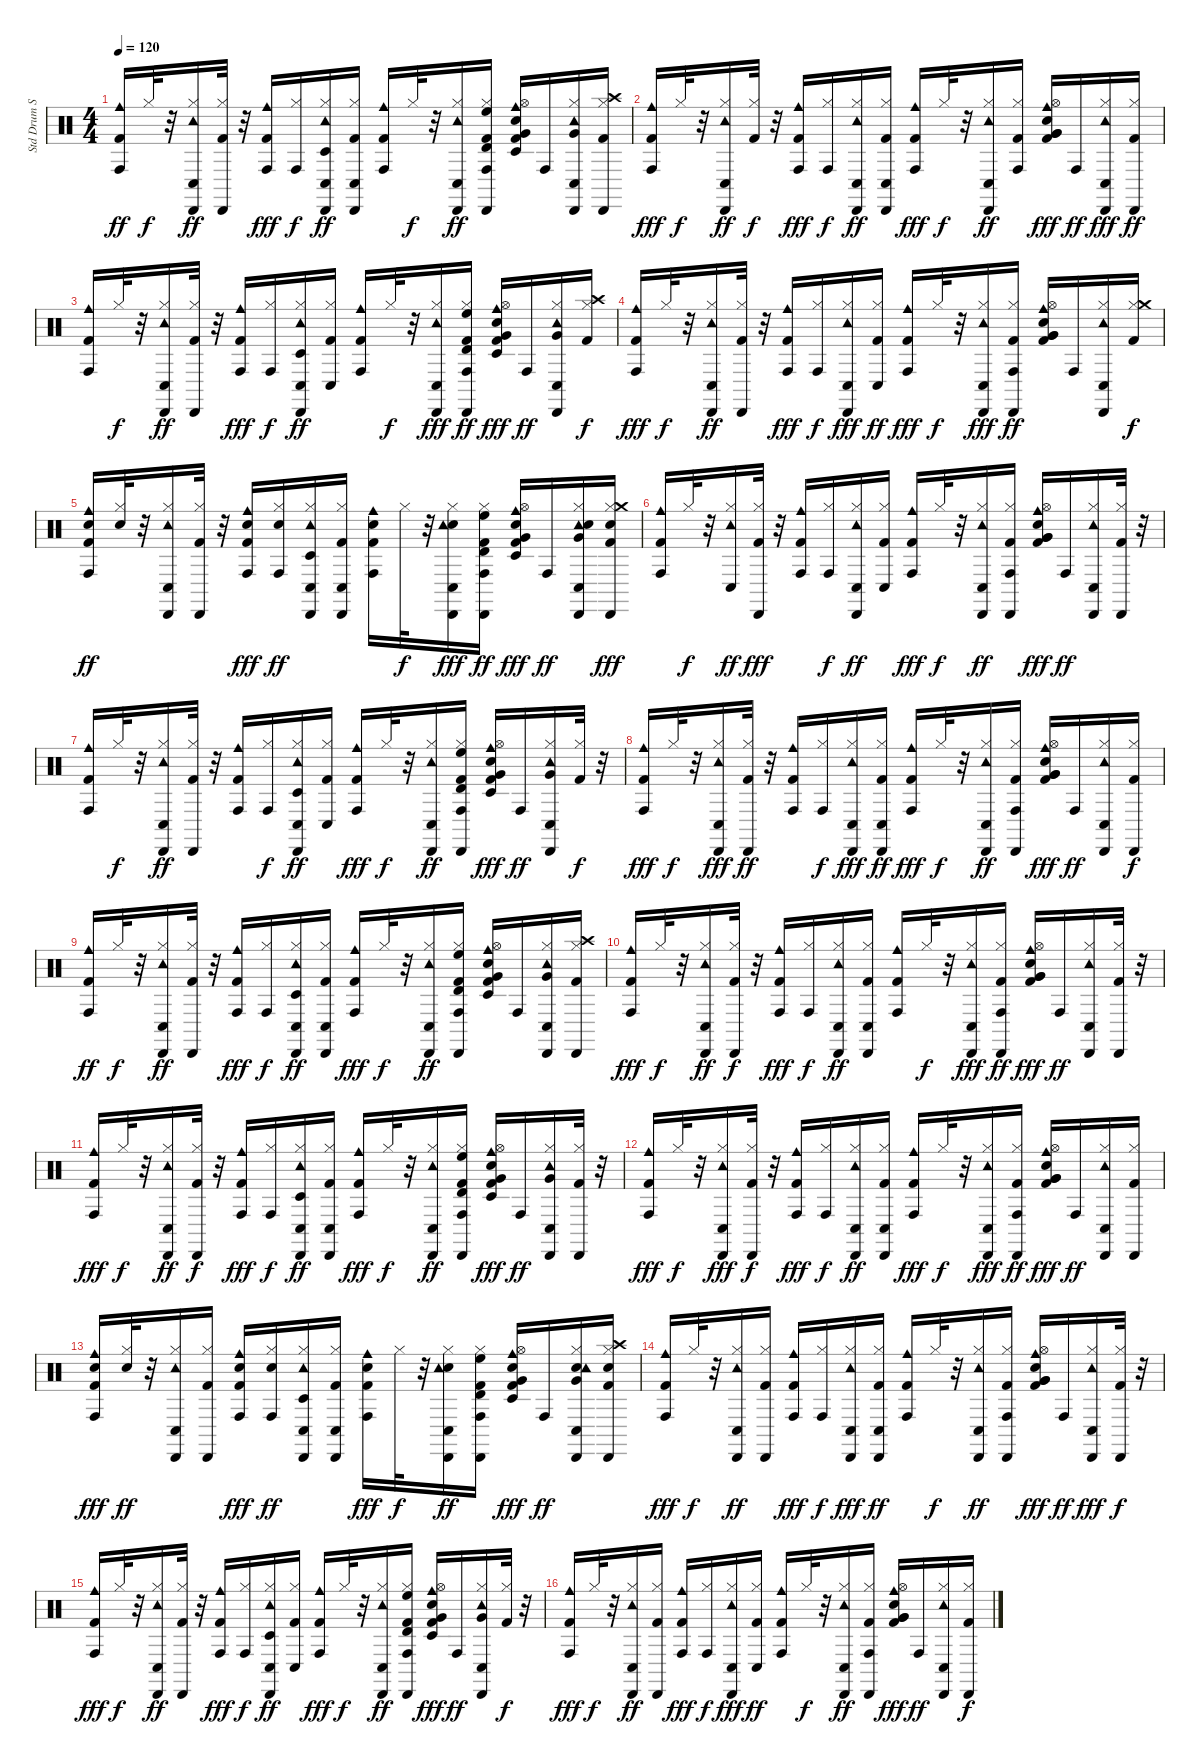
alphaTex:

\track ("Std Drum Set" "Std Drum S") {instrument percussion}
\staff {score}
\articulation defaults
\ts (4 4)
\tempo 120
\clef neutral
\ks c
("Kick (hit) 2" "Cowbell medium (hit)" "Conga high (hit)").16{dy ff} "Hi-Hat (closed)".32{dy f} r.32 ("Hi-Hat (closed)" "Conga low (hit)" "Tambourine (hit)" "Cabasa (hit)").16{dy ff} ("Hi-Hat (closed)" "Kick (hit) 2" "Cabasa (hit)").32 r.32 ("Conga high (hit)" "Kick (hit) 2" "Cowbell medium (hit)").16{dy fff} ("Conga high (hit)" "Hi-Hat (closed)").16{dy f} ("Tambourine (hit)" "Hi-Hat (closed)" "Cabasa (hit)" "Conga low (hit)" "Timbale low (hit)").16{dy ff} ("Conga low (hit)" "Cabasa (hit)" "Kick (hit) 2" "Hi-Hat (closed)").16 ("Cowbell medium (hit)" "Kick (hit) 2" "Conga high (hit)").16 "Hi-Hat (closed)".32{dy f} r.32 ("Conga low (hit)" "Cabasa (hit)" "Hi-Hat (closed)" "Tambourine (hit)").16{dy ff} ("High Floor Tom (hit)" "Hi-Hat (closed)" "Conga high (hit)" "Cabasa (hit)" "Kick (hit) 2" "Timbale high (hit)").16 ("Very Low Tom (hit)" "Hi-Hat (open)" "Cowbell medium (hit)" "Kick (hit) 2" "Timbale low (hit)" "Electric Snare (hit)").16 "Conga high (hit)".16 ("Tambourine (hit)" "Cabasa (hit)" "Hi-Hat (closed)" "Very Low Tom (hit)" "Conga low (hit)").16 ("Kick (hit) 2" "Crash high (hit)" "Hi-Hat (closed)" "Cabasa (hit)").16 |
("Conga high (hit)" "Cowbell medium (hit)" "Kick (hit) 2").16{dy fff} "Hi-Hat (closed)".32{dy f} r.32 ("Cabasa (hit)" "Hi-Hat (closed)" "Conga low (hit)" "Tambourine (hit)").16{dy ff} ("Hi-Hat (closed)" "Kick (hit) 2").32{dy f} r.32 ("Cowbell medium (hit)" "Conga high (hit)" "Kick (hit) 2").16{dy fff} ("Conga high (hit)" "Hi-Hat (closed)").16{dy f} ("Conga low (hit)" "Cabasa (hit)" "Tambourine (hit)" "Hi-Hat (closed)").16{dy ff} ("Kick (hit) 2" "Hi-Hat (closed)" "Conga low (hit)" "Cabasa (hit)").16 ("Conga high (hit)" "Cowbell medium (hit)" "Kick (hit) 2").16{dy fff} "Hi-Hat (closed)".32{dy f} r.32 ("Cabasa (hit)" "Tambourine (hit)" "Conga low (hit)" "Hi-Hat (closed)").16{dy ff} ("Conga high (hit)" "Hi-Hat (closed)" "Kick (hit) 2").16 ("Hi-Hat (open)" "Kick (hit) 2" "Very Low Tom (hit)" "Electric Snare (hit)" "Very Low Tom (hit)" "Cowbell medium (hit)").16{dy fff} "Conga high (hit)".16{dy ff} ("Conga low (hit)" "Tambourine (hit)" "Hi-Hat (closed)" "Cabasa (hit)").16{dy fff} ("Hi-Hat (closed)" "Kick (hit) 2" "Cabasa (hit)").16{dy ff} |
("Cowbell medium (hit)" "Kick (hit) 2" "Conga high (hit)").16 "Hi-Hat (closed)".32{dy f} r.32 ("Tambourine (hit)" "Hi-Hat (closed)" "Cabasa (hit)" "Conga low (hit)").16{dy ff} ("Cabasa (hit)" "Hi-Hat (closed)" "Kick (hit) 2").32 r.32 ("Cowbell medium (hit)" "Conga high (hit)" "Kick (hit) 2").16{dy fff} ("Hi-Hat (closed)" "Conga high (hit)").16{dy f} ("Hi-Hat (closed)" "Tambourine (hit)" "Cabasa (hit)" "Conga low (hit)" "Timbale low (hit)").16{dy ff} ("Hi-Hat (closed)" "Conga low (hit)" "Kick (hit) 2").16 ("Kick (hit) 2" "Cowbell medium (hit)" "Conga high (hit)").16 "Hi-Hat (closed)".32{dy f} r.32 ("Hi-Hat (closed)" "Conga low (hit)" "Cabasa (hit)" "Tambourine (hit)").16{dy fff} ("Timbale high (hit)" "Kick (hit) 2" "Conga high (hit)" "High Floor Tom (hit)" "Hi-Hat (closed)" "Cabasa (hit)").16{dy ff} ("Timbale low (hit)" "Very Low Tom (hit)" "Cowbell medium (hit)" "Electric Snare (hit)" "Hi-Hat (open)" "Kick (hit) 2").16{dy fff} "Conga high (hit)".16{dy ff} ("Conga low (hit)" "Cabasa (hit)" "Hi-Hat (closed)" "Very Low Tom (hit)" "Tambourine (hit)").16 ("Crash high (hit)" "Hi-Hat (closed)" "Kick (hit) 2").16{dy f} |
("Kick (hit) 2" "Conga high (hit)" "Cowbell medium (hit)").16{dy fff} "Hi-Hat (closed)".32{dy f} r.32 ("Tambourine (hit)" "Conga low (hit)" "Cabasa (hit)" "Hi-Hat (closed)").16{dy ff} ("Hi-Hat (closed)" "Kick (hit) 2" "Cabasa (hit)").32 r.32 ("Conga high (hit)" "Kick (hit) 2" "Cowbell medium (hit)").16{dy fff} ("Hi-Hat (closed)" "Conga high (hit)").16{dy f} ("Conga low (hit)" "Hi-Hat (closed)" "Cabasa (hit)" "Tambourine (hit)").16{dy fff} ("Kick (hit) 2" "Hi-Hat (closed)" "Conga low (hit)").16{dy ff} ("Cowbell medium (hit)" "Conga high (hit)" "Kick (hit) 2").16{dy fff} "Hi-Hat (closed)".32{dy f} r.32 ("Conga low (hit)" "Tambourine (hit)" "Hi-Hat (closed)" "Cabasa (hit)").16{dy fff} ("Conga high (hit)" "Hi-Hat (closed)" "Cabasa (hit)" "Kick (hit) 2").16{dy ff} ("Kick (hit) 2" "Cowbell medium (hit)" "Electric Snare (hit)" "Very Low Tom (hit)" "Very Low Tom (hit)" "Hi-Hat (open)").16 "Conga high (hit)".16 ("Hi-Hat (closed)" "Cabasa (hit)" "Conga low (hit)" "Tambourine (hit)").16 ("Hi-Hat (closed)" "Kick (hit) 2" "Crash medium (hit)").16{dy f} |
("Cowbell medium (hit)" "Kick (hit) 2" "Conga high (hit)" "Electric Snare (hit)").16{dy ff} ("Electric Snare (hit)" "Hi-Hat (closed)").32 r.32 ("Cabasa (hit)" "Conga low (hit)" "Tambourine (hit)" "Hi-Hat (closed)").16 ("Kick (hit) 2" "Hi-Hat (closed)" "Cabasa (hit)").32 r.32 ("Cowbell medium (hit)" "Electric Snare (hit)" "Conga high (hit)" "Kick (hit) 2").16{dy fff} ("Conga high (hit)" "Hi-Hat (closed)" "Electric Snare (hit)").16{dy ff} ("Cabasa (hit)" "Timbale low (hit)" "Tambourine (hit)" "Conga low (hit)" "Hi-Hat (closed)").16 ("Conga low (hit)" "Kick (hit) 2" "Cabasa (hit)" "Hi-Hat (closed)").16 ("Cowbell medium (hit)" "Kick (hit) 2" "Electric Snare (hit)" "Conga high (hit)").16 "Hi-Hat (closed)".32{dy f} r.32 ("Hi-Hat (closed)" "Electric Snare (hit)" "Conga low (hit)" "Tambourine (hit)" "Cabasa (hit)").16{dy fff} ("Hi-Hat (closed)" "Kick (hit) 2" "Cabasa (hit)" "Timbale high (hit)" "High Floor Tom (hit)" "Conga high (hit)").16{dy ff} ("Hi-Hat (open)" "Timbale low (hit)" "Very Low Tom (hit)" "Kick (hit) 2" "Electric Snare (hit)" "Cowbell medium (hit)").16{dy fff} "Conga high (hit)".16{dy ff} ("Very Low Tom (hit)" "Cabasa (hit)" "Tambourine (hit)" "Electric Snare (hit)" "Conga low (hit)" "Hi-Hat (closed)").16 ("Electric Snare (hit)" "Hi-Hat (closed)" "Kick (hit) 2" "Cabasa (hit)" "Crash medium (hit)").16{dy fff} |
("Kick (hit) 2" "Conga high (hit)" "Cowbell medium (hit)").16 "Hi-Hat (closed)".32{dy f} r.32 ("Conga low (hit)" "Tambourine (hit)" "Hi-Hat (closed)").16{dy ff} ("Kick (hit) 2" "Cabasa (hit)" "Hi-Hat (closed)").32{dy fff} r.32 ("Conga high (hit)" "Kick (hit) 2" "Cowbell medium (hit)").16 ("Conga high (hit)" "Hi-Hat (closed)").16{dy f} ("Cabasa (hit)" "Hi-Hat (closed)" "Conga low (hit)" "Tambourine (hit)").16{dy ff} ("Kick (hit) 2" "Conga low (hit)" "Hi-Hat (closed)").16 ("Cowbell medium (hit)" "Conga high (hit)" "Kick (hit) 2").16{dy fff} "Hi-Hat (closed)".32{dy f} r.32 ("Conga low (hit)" "Cabasa (hit)" "Hi-Hat (closed)" "Tambourine (hit)").16{dy ff} ("Cabasa (hit)" "Conga high (hit)" "Kick (hit) 2" "Hi-Hat (closed)").16 ("Kick (hit) 2" "Electric Snare (hit)" "Cowbell medium (hit)" "Hi-Hat (open)" "Very Low Tom (hit)" "Very Low Tom (hit)").16{dy fff} "Conga high (hit)".16{dy ff} ("Tambourine (hit)" "Hi-Hat (closed)" "Conga low (hit)" "Cabasa (hit)").16 ("Cabasa (hit)" "Kick (hit) 2" "Hi-Hat (closed)").32 r.32 |
("Kick (hit) 2" "Cowbell medium (hit)" "Conga high (hit)").16 "Hi-Hat (closed)".32{dy f} r.32 ("Conga low (hit)" "Cabasa (hit)" "Tambourine (hit)" "Hi-Hat (closed)").16{dy ff} ("Kick (hit) 2" "Hi-Hat (closed)" "Cabasa (hit)").32 r.32 ("Cowbell medium (hit)" "Kick (hit) 2" "Conga high (hit)").16 ("Conga high (hit)" "Hi-Hat (closed)").16{dy f} ("Cabasa (hit)" "Hi-Hat (closed)" "Tambourine (hit)" "Timbale low (hit)" "Conga low (hit)").16{dy ff} ("Conga low (hit)" "Kick (hit) 2" "Hi-Hat (closed)").16 ("Cowbell medium (hit)" "Conga high (hit)" "Kick (hit) 2").16{dy fff} "Hi-Hat (closed)".32{dy f} r.32 ("Hi-Hat (closed)" "Cabasa (hit)" "Tambourine (hit)" "Conga low (hit)").16{dy ff} ("High Floor Tom (hit)" "Cabasa (hit)" "Timbale high (hit)" "Kick (hit) 2" "Conga high (hit)" "Hi-Hat (closed)").16 ("Cowbell medium (hit)" "Very Low Tom (hit)" "Timbale low (hit)" "Kick (hit) 2" "Hi-Hat (open)" "Electric Snare (hit)").16{dy fff} "Conga high (hit)".16{dy ff} ("Hi-Hat (closed)" "Tambourine (hit)" "Very Low Tom (hit)" "Cabasa (hit)" "Conga low (hit)").16 ("Hi-Hat (closed)" "Kick (hit) 2").32{dy f} r.32 |
("Conga high (hit)" "Cowbell medium (hit)" "Kick (hit) 2").16{dy fff} "Hi-Hat (closed)".32{dy f} r.32 ("Conga low (hit)" "Hi-Hat (closed)" "Tambourine (hit)" "Cabasa (hit)").16{dy fff} ("Cabasa (hit)" "Kick (hit) 2" "Hi-Hat (closed)").32{dy ff} r.32 ("Kick (hit) 2" "Cowbell medium (hit)" "Conga high (hit)").16 ("Hi-Hat (closed)" "Conga high (hit)").16{dy f} ("Hi-Hat (closed)" "Conga low (hit)" "Tambourine (hit)" "Cabasa (hit)").16{dy fff} ("Conga low (hit)" "Hi-Hat (closed)" "Kick (hit) 2" "Cabasa (hit)").16{dy ff} ("Conga high (hit)" "Kick (hit) 2" "Cowbell medium (hit)").16{dy fff} "Hi-Hat (closed)".32{dy f} r.32 ("Cabasa (hit)" "Tambourine (hit)" "Conga low (hit)" "Hi-Hat (closed)").16{dy ff} ("Cabasa (hit)" "Kick (hit) 2" "Conga high (hit)" "Hi-Hat (closed)").16 ("Very Low Tom (hit)" "Kick (hit) 2" "Hi-Hat (open)" "Very Low Tom (hit)" "Cowbell medium (hit)" "Electric Snare (hit)").16{dy fff} "Conga high (hit)".16{dy ff} ("Conga low (hit)" "Hi-Hat (closed)" "Tambourine (hit)" "Cabasa (hit)").16 ("Kick (hit) 2" "Cabasa (hit)" "Hi-Hat (closed)").16{dy f} |
("Kick (hit) 2" "Cowbell medium (hit)" "Conga high (hit)").16{dy ff} "Hi-Hat (closed)".32{dy f} r.32 ("Cabasa (hit)" "Tambourine (hit)" "Conga low (hit)" "Hi-Hat (closed)").16{dy ff} ("Cabasa (hit)" "Kick (hit) 2" "Hi-Hat (closed)").32 r.32 ("Cowbell medium (hit)" "Conga high (hit)" "Kick (hit) 2").16{dy fff} ("Conga high (hit)" "Hi-Hat (closed)").16{dy f} ("Tambourine (hit)" "Cabasa (hit)" "Conga low (hit)" "Hi-Hat (closed)" "Timbale low (hit)").16{dy ff} ("Kick (hit) 2" "Cabasa (hit)" "Conga low (hit)" "Hi-Hat (closed)").16 ("Conga high (hit)" "Cowbell medium (hit)" "Kick (hit) 2").16{dy fff} "Hi-Hat (closed)".32{dy f} r.32 ("Cabasa (hit)" "Conga low (hit)" "Tambourine (hit)" "Hi-Hat (closed)").16{dy ff} ("Timbale high (hit)" "Conga high (hit)" "High Floor Tom (hit)" "Hi-Hat (closed)" "Cabasa (hit)" "Kick (hit) 2").16 ("Very Low Tom (hit)" "Kick (hit) 2" "Cowbell medium (hit)" "Hi-Hat (open)" "Timbale low (hit)" "Electric Snare (hit)").16 "Conga high (hit)".16 ("Conga low (hit)" "Hi-Hat (closed)" "Tambourine (hit)" "Very Low Tom (hit)" "Cabasa (hit)").16 ("Cabasa (hit)" "Kick (hit) 2" "Hi-Hat (closed)" "Crash high (hit)").16 |
("Kick (hit) 2" "Conga high (hit)" "Cowbell medium (hit)").16{dy fff} "Hi-Hat (closed)".32{dy f} r.32 ("Cabasa (hit)" "Hi-Hat (closed)" "Tambourine (hit)" "Conga low (hit)").16{dy ff} ("Hi-Hat (closed)" "Cabasa (hit)" "Kick (hit) 2").32{dy f} r.32 ("Conga high (hit)" "Kick (hit) 2" "Cowbell medium (hit)").16{dy fff} ("Conga high (hit)" "Hi-Hat (closed)").16{dy f} ("Hi-Hat (closed)" "Tambourine (hit)" "Cabasa (hit)" "Conga low (hit)").16{dy ff} ("Cabasa (hit)" "Conga low (hit)" "Kick (hit) 2" "Hi-Hat (closed)").16 ("Kick (hit) 2" "Cowbell medium (hit)" "Conga high (hit)").16 "Hi-Hat (closed)".32{dy f} r.32 ("Tambourine (hit)" "Hi-Hat (closed)" "Conga low (hit)" "Cabasa (hit)").16{dy fff} ("Hi-Hat (closed)" "Conga high (hit)" "Cabasa (hit)" "Kick (hit) 2").16{dy ff} ("Hi-Hat (open)" "Very Low Tom (hit)" "Kick (hit) 2" "Very Low Tom (hit)" "Electric Snare (hit)" "Cowbell medium (hit)").16{dy fff} "Conga high (hit)".16{dy ff} ("Cabasa (hit)" "Conga low (hit)" "Tambourine (hit)" "Hi-Hat (closed)").16 ("Cabasa (hit)" "Hi-Hat (closed)" "Kick (hit) 2").32 r.32 |
("Kick (hit) 2" "Conga high (hit)" "Cowbell medium (hit)").16{dy fff} "Hi-Hat (closed)".32{dy f} r.32 ("Tambourine (hit)" "Hi-Hat (closed)" "Conga low (hit)" "Cabasa (hit)").16{dy ff} ("Kick (hit) 2" "Hi-Hat (closed)" "Cabasa (hit)").32{dy f} r.32 ("Conga high (hit)" "Kick (hit) 2" "Cowbell medium (hit)").16{dy fff} ("Hi-Hat (closed)" "Conga high (hit)").16{dy f} ("Cabasa (hit)" "Hi-Hat (closed)" "Tambourine (hit)" "Timbale low (hit)" "Conga low (hit)").16{dy ff} ("Conga low (hit)" "Kick (hit) 2" "Hi-Hat (closed)" "Cabasa (hit)").16 ("Cowbell medium (hit)" "Conga high (hit)" "Kick (hit) 2").16{dy fff} "Hi-Hat (closed)".32{dy f} r.32 ("Cabasa (hit)" "Conga low (hit)" "Tambourine (hit)" "Hi-Hat (closed)").16{dy ff} ("Conga high (hit)" "Timbale high (hit)" "High Floor Tom (hit)" "Kick (hit) 2" "Hi-Hat (closed)" "Cabasa (hit)").16 ("Very Low Tom (hit)" "Hi-Hat (open)" "Cowbell medium (hit)" "Kick (hit) 2" "Electric Snare (hit)" "Timbale low (hit)").16{dy fff} "Conga high (hit)".16{dy ff} ("Tambourine (hit)" "Hi-Hat (closed)" "Conga low (hit)" "Cabasa (hit)" "Very Low Tom (hit)").16 ("Cabasa (hit)" "Hi-Hat (closed)" "Kick (hit) 2").32 r.32 |
("Conga high (hit)" "Kick (hit) 2" "Cowbell medium (hit)").16{dy fff} "Hi-Hat (closed)".32{dy f} r.32 ("Conga low (hit)" "Tambourine (hit)" "Hi-Hat (closed)" "Cabasa (hit)").16{dy fff} ("Kick (hit) 2" "Hi-Hat (closed)" "Cabasa (hit)").32{dy f} r.32 ("Kick (hit) 2" "Conga high (hit)" "Cowbell medium (hit)").16{dy fff} ("Hi-Hat (closed)" "Conga high (hit)").16{dy f} ("Cabasa (hit)" "Hi-Hat (closed)" "Conga low (hit)" "Tambourine (hit)").16{dy ff} ("Kick (hit) 2" "Conga low (hit)" "Hi-Hat (closed)" "Cabasa (hit)").16 ("Conga high (hit)" "Cowbell medium (hit)" "Kick (hit) 2").16{dy fff} "Hi-Hat (closed)".32{dy f} r.32 ("Hi-Hat (closed)" "Conga low (hit)" "Cabasa (hit)" "Tambourine (hit)").16{dy fff} ("Hi-Hat (closed)" "Kick (hit) 2" "Conga high (hit)" "Cabasa (hit)").16{dy ff} ("Kick (hit) 2" "Very Low Tom (hit)" "Electric Snare (hit)" "Hi-Hat (open)" "Very Low Tom (hit)" "Cowbell medium (hit)").16{dy fff} "Conga high (hit)".16{dy ff} ("Hi-Hat (closed)" "Conga low (hit)" "Tambourine (hit)" "Cabasa (hit)").16 ("Hi-Hat (closed)" "Kick (hit) 2" "Cabasa (hit)").16 |
("Electric Snare (hit)" "Cowbell medium (hit)" "Conga high (hit)" "Kick (hit) 2").16{dy fff} ("Hi-Hat (closed)" "Electric Snare (hit)").32{dy ff} r.32 ("Conga low (hit)" "Cabasa (hit)" "Tambourine (hit)" "Hi-Hat (closed)").16 ("Cabasa (hit)" "Hi-Hat (closed)" "Kick (hit) 2").16 ("Conga high (hit)" "Electric Snare (hit)" "Cowbell medium (hit)" "Kick (hit) 2").16{dy fff} ("Conga high (hit)" "Hi-Hat (closed)" "Electric Snare (hit)").16{dy ff} ("Hi-Hat (closed)" "Timbale low (hit)" "Conga low (hit)" "Tambourine (hit)" "Cabasa (hit)").16 ("Cabasa (hit)" "Conga low (hit)" "Hi-Hat (closed)" "Kick (hit) 2").16 ("Cowbell medium (hit)" "Conga high (hit)" "Kick (hit) 2" "Electric Snare (hit)").16{dy fff} "Hi-Hat (closed)".32{dy f} r.32 ("Electric Snare (hit)" "Conga low (hit)" "Cabasa (hit)" "Hi-Hat (closed)" "Tambourine (hit)").16{dy ff} ("Kick (hit) 2" "Timbale high (hit)" "Hi-Hat (closed)" "Cabasa (hit)" "High Floor Tom (hit)" "Conga high (hit)").16 ("Kick (hit) 2" "Timbale low (hit)" "Electric Snare (hit)" "Very Low Tom (hit)" "Hi-Hat (open)" "Cowbell medium (hit)").16{dy fff} "Conga high (hit)".16{dy ff} ("Conga low (hit)" "Very Low Tom (hit)" "Electric Snare (hit)" "Tambourine (hit)" "Hi-Hat (closed)" "Cabasa (hit)").16 ("Hi-Hat (closed)" "Electric Snare (hit)" "Cabasa (hit)" "Crash high (hit)" "Kick (hit) 2").16 |
("Cowbell medium (hit)" "Conga high (hit)" "Kick (hit) 2").16{dy fff} "Hi-Hat (closed)".32{dy f} r.32 ("Cabasa (hit)" "Tambourine (hit)" "Conga low (hit)" "Hi-Hat (closed)").16{dy ff} ("Cabasa (hit)" "Kick (hit) 2" "Hi-Hat (closed)").16 ("Conga high (hit)" "Kick (hit) 2" "Cowbell medium (hit)").16{dy fff} ("Hi-Hat (closed)" "Conga high (hit)").16{dy f} ("Hi-Hat (closed)" "Conga low (hit)" "Tambourine (hit)" "Cabasa (hit)").16{dy fff} ("Cabasa (hit)" "Kick (hit) 2" "Conga low (hit)" "Hi-Hat (closed)").16{dy ff} ("Cowbell medium (hit)" "Kick (hit) 2" "Conga high (hit)").16 "Hi-Hat (closed)".32{dy f} r.32 ("Cabasa (hit)" "Conga low (hit)" "Hi-Hat (closed)" "Tambourine (hit)").16{dy ff} ("Cabasa (hit)" "Hi-Hat (closed)" "Kick (hit) 2" "Conga high (hit)").16 ("Very Low Tom (hit)" "Kick (hit) 2" "Very Low Tom (hit)" "Hi-Hat (open)" "Electric Snare (hit)" "Cowbell medium (hit)").16{dy fff} "Conga high (hit)".16{dy ff} ("Hi-Hat (closed)" "Tambourine (hit)" "Conga low (hit)" "Cabasa (hit)").16{dy fff} ("Cabasa (hit)" "Kick (hit) 2" "Hi-Hat (closed)").32{dy f} r.32 |
("Cowbell medium (hit)" "Conga high (hit)" "Kick (hit) 2").16{dy fff} "Hi-Hat (closed)".32{dy f} r.32 ("Tambourine (hit)" "Cabasa (hit)" "Conga low (hit)" "Hi-Hat (closed)").16{dy ff} ("Hi-Hat (closed)" "Cabasa (hit)" "Kick (hit) 2").32 r.32 ("Conga high (hit)" "Kick (hit) 2" "Cowbell medium (hit)").16{dy fff} ("Hi-Hat (closed)" "Conga high (hit)").16{dy f} ("Tambourine (hit)" "Cabasa (hit)" "Conga low (hit)" "Hi-Hat (closed)" "Timbale low (hit)").16{dy ff} ("Kick (hit) 2" "Conga low (hit)" "Hi-Hat (closed)").16 ("Conga high (hit)" "Cowbell medium (hit)" "Kick (hit) 2").16{dy fff} "Hi-Hat (closed)".32{dy f} r.32 ("Conga low (hit)" "Tambourine (hit)" "Cabasa (hit)" "Hi-Hat (closed)").16{dy ff} ("Hi-Hat (closed)" "Timbale high (hit)" "High Floor Tom (hit)" "Cabasa (hit)" "Kick (hit) 2" "Conga high (hit)").16 ("Kick (hit) 2" "Very Low Tom (hit)" "Hi-Hat (open)" "Timbale low (hit)" "Electric Snare (hit)" "Cowbell medium (hit)").16{dy fff} "Conga high (hit)".16{dy ff} ("Cabasa (hit)" "Tambourine (hit)" "Hi-Hat (closed)" "Conga low (hit)" "Very Low Tom (hit)").16 ("Kick (hit) 2" "Hi-Hat (closed)").32{dy f} r.32 |
("Cowbell medium (hit)" "Conga high (hit)" "Kick (hit) 2").16{dy fff} "Hi-Hat (closed)".32{dy f} r.32 ("Cabasa (hit)" "Conga low (hit)" "Tambourine (hit)" "Hi-Hat (closed)").16{dy ff} ("Hi-Hat (closed)" "Cabasa (hit)" "Kick (hit) 2").16 ("Kick (hit) 2" "Conga high (hit)" "Cowbell medium (hit)").16{dy fff} ("Conga high (hit)" "Hi-Hat (closed)").16{dy f} ("Hi-Hat (closed)" "Conga low (hit)" "Cabasa (hit)" "Tambourine (hit)").16{dy fff} ("Kick (hit) 2" "Conga low (hit)" "Hi-Hat (closed)").16{dy ff} ("Cowbell medium (hit)" "Kick (hit) 2" "Conga high (hit)").16 "Hi-Hat (closed)".32{dy f} r.32 ("Conga low (hit)" "Cabasa (hit)" "Hi-Hat (closed)" "Tambourine (hit)").16{dy ff} ("Kick (hit) 2" "Conga high (hit)" "Cabasa (hit)" "Hi-Hat (closed)").16 ("Cowbell medium (hit)" "Hi-Hat (open)" "Kick (hit) 2" "Very Low Tom (hit)" "Electric Snare (hit)" "Very Low Tom (hit)").16{dy fff} "Conga high (hit)".16{dy ff} ("Cabasa (hit)" "Hi-Hat (closed)" "Tambourine (hit)" "Conga low (hit)").16 ("Cabasa (hit)" "Kick (hit) 2" "Hi-Hat (closed)").16{dy f}
